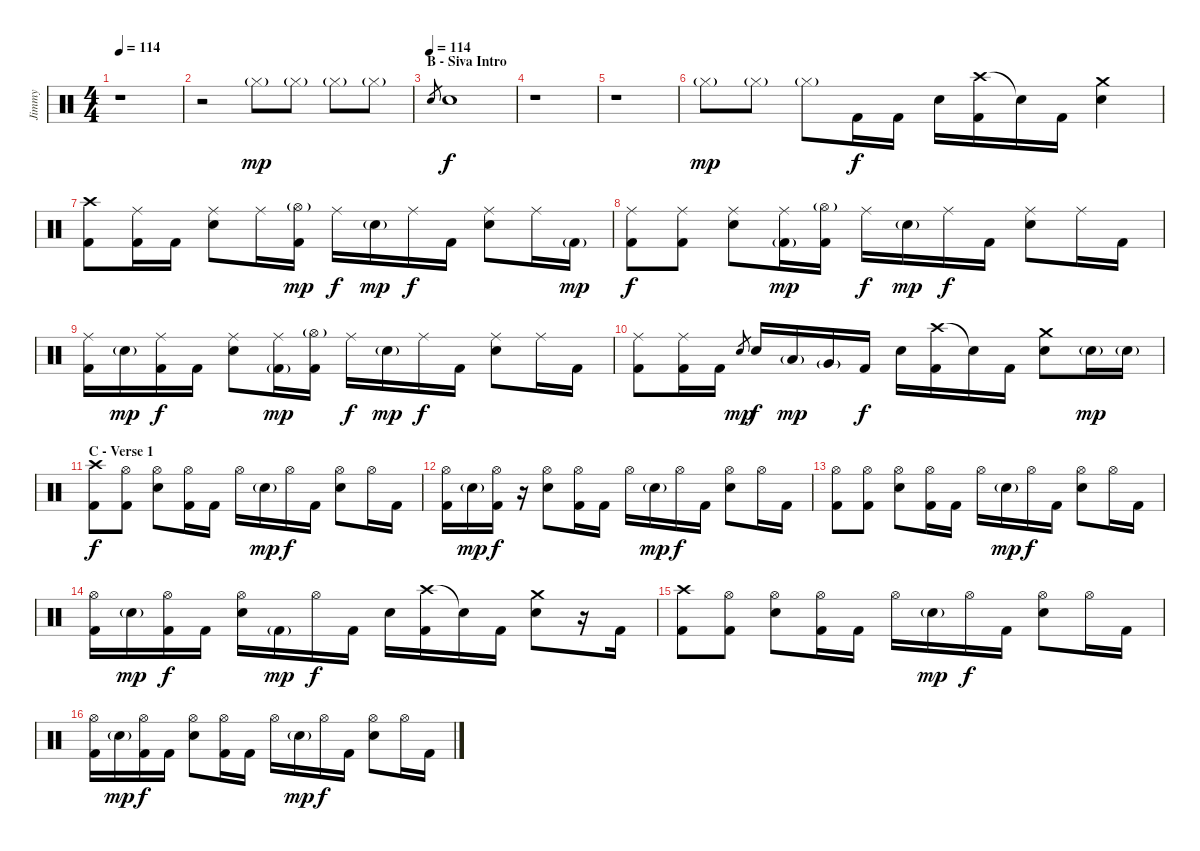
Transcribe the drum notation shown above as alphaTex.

\track ("Jimmy" "Jimmy") {instrument percussion}
\staff {score}
\articulation defaults
\ts (4 4)
\tempo 114
\clef neutral
\ks c
r.1{dy mp} |
r.2 "Hi-Hat (closed)"{g}.8 "Hi-Hat (closed)"{g}.8 "Hi-Hat (closed)"{g}.8 "Hi-Hat (closed)"{g}.8 |
\section ("" "B - Siva Intro")
\tempo (114)
"Electric Snare (hit)".8{gr} "Electric Snare (hit)".1{dy f} |
r.1 |
r.1 |
"Hi-Hat (closed)"{g}.8{dy mp} "Hi-Hat (closed)"{g}.8 "Hi-Hat (closed)"{g}.8 "Kick (hit) 2".16{dy f} "Kick (hit) 2".16 "Electric Snare (hit)".16 ("Crash high (hit)" "Kick (hit) 2").16 "Snare (hit)"{t}.16 "Kick (hit) 2".16 ("Crash medium (hit)" "Electric Snare (hit)").4 |
("Crash high (hit)" "Kick (hit) 2").8 ("Ride (middle)" "Kick (hit) 2").16 "Kick (hit) 2".16 ("Ride (middle)" "Electric Snare (hit)").8 "Ride (middle)".16 ("Hi-Hat (open)"{g} "Kick (hit) 2").16{dy mp} "Ride (middle)".16{dy f} "Electric Snare (hit)"{g}.16{dy mp} "Ride (middle)".16{dy f} "Kick (hit) 2".16 ("Ride (middle)" "Electric Snare (hit)").8 "Ride (middle)".16 "Kick (hit) 2"{g}.16{dy mp} |
("Ride (middle)" "Kick (hit) 2").8{dy f} ("Ride (middle)" "Kick (hit) 2").8 ("Ride (middle)" "Electric Snare (hit)").8 ("Ride (middle)" "Kick (hit) 2"{g}).16{dy mp} ("Hi-Hat (open)"{g} "Kick (hit) 2").16 "Ride (middle)".16{dy f} "Electric Snare (hit)"{g}.16{dy mp} "Ride (middle)".16{dy f} "Kick (hit) 2".16 ("Ride (middle)" "Electric Snare (hit)").8 "Ride (middle)".16 "Kick (hit) 2".16 |
("Ride (middle)" "Kick (hit) 2").16 "Electric Snare (hit)"{g}.16{dy mp} ("Ride (middle)" "Kick (hit) 2").16{dy f} "Kick (hit) 2".16 ("Ride (middle)" "Electric Snare (hit)").8 ("Ride (middle)" "Kick (hit) 2"{g}).16{dy mp} ("Hi-Hat (open)"{g} "Kick (hit) 2").16 "Ride (middle)".16{dy f} "Electric Snare (hit)"{g}.16{dy mp} "Ride (middle)".16{dy f} "Kick (hit) 2".16 ("Ride (middle)" "Electric Snare (hit)").8 "Ride (middle)".16 "Kick (hit) 2".16 |
("Ride (middle)" "Kick (hit) 2").8 ("Ride (middle)" "Kick (hit) 2").16 "Kick (hit) 2".16 "Electric Snare (hit)".8{gr dy mp} "Electric Snare (hit)".16{dy f} "Low Tom (hit)"{g}.16{dy mp} "Very Low Tom (hit)"{g}.16 "Kick (hit) 2".16{dy f} "Electric Snare (hit)".16 ("Crash high (hit)" "Kick (hit) 2").16 "Snare (hit)"{t}.16 "Kick (hit) 2".16 ("Crash medium (hit)" "Electric Snare (hit)").8 "Electric Snare (hit)"{g}.16{dy mp} "Electric Snare (hit)"{g}.16 |
\section ("" "C - Verse 1")
("Crash high (hit)" "Kick (hit) 2").8{dy f} ("Hi-Hat (open)" "Kick (hit) 2").8 ("Hi-Hat (open)" "Electric Snare (hit)").8 ("Hi-Hat (open)" "Kick (hit) 2").16 "Kick (hit) 2".16 "Hi-Hat (open)".16 "Electric Snare (hit)"{g}.16{dy mp} "Hi-Hat (open)".16{dy f} "Kick (hit) 2".16 ("Hi-Hat (open)" "Electric Snare (hit)").8 "Hi-Hat (open)".16 "Kick (hit) 2".16 |
("Hi-Hat (open)" "Kick (hit) 2").16 "Electric Snare (hit)"{g}.16{dy mp} ("Hi-Hat (open)" "Kick (hit) 2").16{dy f} r.16 ("Hi-Hat (open)" "Electric Snare (hit)").8 ("Hi-Hat (open)" "Kick (hit) 2").16 "Kick (hit) 2".16 "Hi-Hat (open)".16 "Electric Snare (hit)"{g}.16{dy mp} "Hi-Hat (open)".16{dy f} "Kick (hit) 2".16 ("Hi-Hat (open)" "Electric Snare (hit)").8 "Hi-Hat (open)".16 "Kick (hit) 2".16 |
("Hi-Hat (open)" "Kick (hit) 2").8 ("Hi-Hat (open)" "Kick (hit) 2").8 ("Hi-Hat (open)" "Electric Snare (hit)").8 ("Hi-Hat (open)" "Kick (hit) 2").16 "Kick (hit) 2".16 "Hi-Hat (open)".16 "Electric Snare (hit)"{g}.16{dy mp} "Hi-Hat (open)".16{dy f} "Kick (hit) 2".16 ("Hi-Hat (open)" "Electric Snare (hit)").8 "Hi-Hat (open)".16 "Kick (hit) 2".16 |
("Hi-Hat (open)" "Kick (hit) 2").16 "Electric Snare (hit)"{g}.16{dy mp} ("Hi-Hat (open)" "Kick (hit) 2").16{dy f} "Kick (hit) 2".16 ("Hi-Hat (open)" "Electric Snare (hit)").16 "Kick (hit) 2"{g}.16{dy mp} "Hi-Hat (open)".16{dy f} "Kick (hit) 2".16 "Electric Snare (hit)".16 ("Crash high (hit)" "Kick (hit) 2").16 "Snare (hit)"{t}.16 "Kick (hit) 2".16 ("Crash medium (hit)" "Electric Snare (hit)").8 r.16 "Kick (hit) 2".16 |
("Crash high (hit)" "Kick (hit) 2").8 ("Hi-Hat (open)" "Kick (hit) 2").8 ("Hi-Hat (open)" "Electric Snare (hit)").8 ("Hi-Hat (open)" "Kick (hit) 2").16 "Kick (hit) 2".16 "Hi-Hat (open)".16 "Electric Snare (hit)"{g}.16{dy mp} "Hi-Hat (open)".16{dy f} "Kick (hit) 2".16 ("Hi-Hat (open)" "Electric Snare (hit)").8 "Hi-Hat (open)".16 "Kick (hit) 2".16 |
("Hi-Hat (open)" "Kick (hit) 2").16 "Electric Snare (hit)"{g}.16{dy mp} ("Hi-Hat (open)" "Kick (hit) 2").16{dy f} "Kick (hit) 2".16 ("Hi-Hat (open)" "Electric Snare (hit)").8 ("Hi-Hat (open)" "Kick (hit) 2").16 "Kick (hit) 2".16 "Hi-Hat (open)".16 "Electric Snare (hit)"{g}.16{dy mp} "Hi-Hat (open)".16{dy f} "Kick (hit) 2".16 ("Hi-Hat (open)" "Electric Snare (hit)").8 "Hi-Hat (open)".16 "Kick (hit) 2".16
